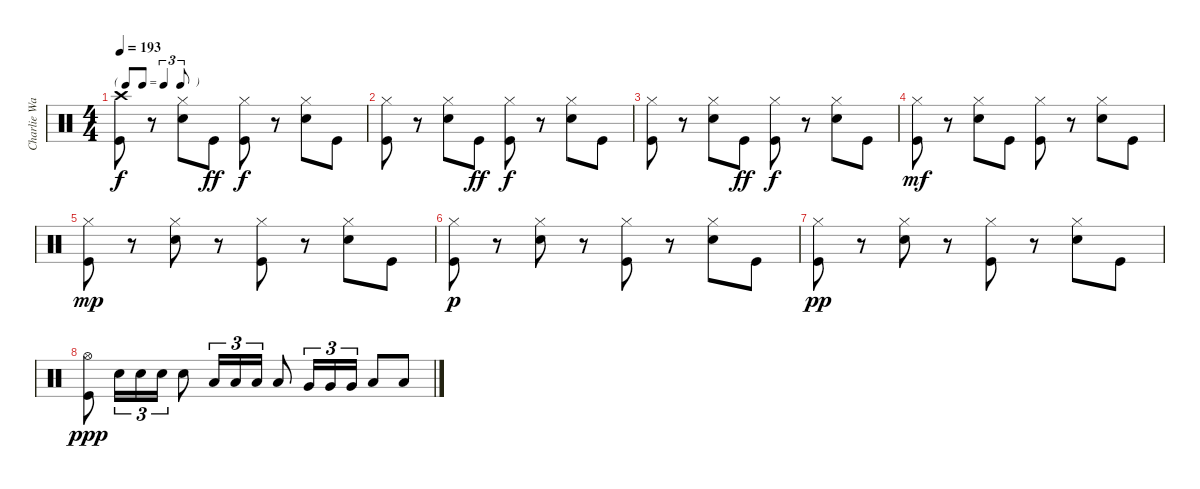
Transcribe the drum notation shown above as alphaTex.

\track ("Charlie Watts" "Charlie Wa") {instrument percussion}
\staff {score}
\articulation defaults
\ts (4 4)
\tf triplet8th
\tempo 193
\clef neutral
\ks c
("Crash high (hit)" "Kick (hit)").8{dy f} r.8 ("Hi-Hat (closed)" "Snare (hit) 2").8 "Kick (hit)".8{dy ff} ("Hi-Hat (closed)" "Kick (hit)").8{dy f} r.8 ("Hi-Hat (closed)" "Snare (hit) 2").8 "Kick (hit)".8 |
("Hi-Hat (closed)" "Kick (hit)").8 r.8 ("Hi-Hat (closed)" "Snare (hit) 2").8 "Kick (hit)".8{dy ff} ("Hi-Hat (closed)" "Kick (hit)").8{dy f} r.8 ("Hi-Hat (closed)" "Snare (hit) 2").8 "Kick (hit)".8 |
("Hi-Hat (closed)" "Kick (hit)").8 r.8 ("Hi-Hat (closed)" "Snare (hit) 2").8 "Kick (hit)".8{dy ff} ("Hi-Hat (closed)" "Kick (hit)").8{dy f} r.8 ("Hi-Hat (closed)" "Snare (hit) 2").8 "Kick (hit)".8 |
("Hi-Hat (closed)" "Kick (hit)").8{dy mf} r.8 ("Hi-Hat (closed)" "Snare (hit) 2").8 "Kick (hit)".8 ("Hi-Hat (closed)" "Kick (hit)").8 r.8 ("Hi-Hat (closed)" "Snare (hit) 2").8 "Kick (hit)".8 |
("Hi-Hat (closed)" "Kick (hit)").8{dy mp} r.8 ("Hi-Hat (closed)" "Snare (hit) 2").8 r.8 ("Hi-Hat (closed)" "Kick (hit)").8 r.8 ("Hi-Hat (closed)" "Snare (hit) 2").8 "Kick (hit)".8 |
("Hi-Hat (closed)" "Kick (hit)").8{dy p} r.8 ("Hi-Hat (closed)" "Snare (hit) 2").8 r.8 ("Hi-Hat (closed)" "Kick (hit)").8 r.8 ("Hi-Hat (closed)" "Snare (hit) 2").8 "Kick (hit)".8 |
("Hi-Hat (closed)" "Kick (hit)").8{dy pp} r.8 ("Hi-Hat (closed)" "Snare (hit) 2").8 r.8 ("Hi-Hat (closed)" "Kick (hit)").8 r.8 ("Hi-Hat (closed)" "Snare (hit) 2").8 "Kick (hit)".8 |
("Hi-Hat (open)" "Kick (hit)").8{dy ppp} "Snare (hit) 2".16{tu (3 2)} "Snare (hit) 2".16{tu (3 2)} "Snare (hit) 2".16{tu (3 2)} "Snare (hit) 2".8 "Low Tom (hit)".16{tu (3 2)} "Low Tom (hit)".16{tu (3 2)} "Low Tom (hit)".16{tu (3 2)} "Low Tom (hit)".8 "Very Low Tom (hit)".16{tu (3 2)} "Very Low Tom (hit)".16{tu (3 2)} "Very Low Tom (hit)".16{tu (3 2)} "Low Floor Tom (hit)".8 "Low Floor Tom (hit)".8
